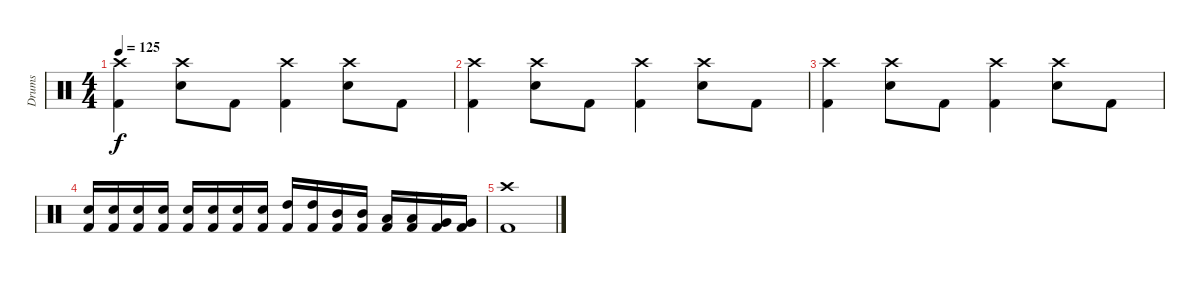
\track ("Drums" "Drums") {instrument percussion}
\staff {score}
\articulation defaults
\ts (4 4)
\tempo 125
\clef neutral
\ks c
("Crash high (hit)" "Kick (hit) 2").4{dy f} ("Crash high (hit)" "Snare (hit) 2").8 "Kick (hit) 2".8 ("Crash high (hit)" "Kick (hit) 2").4 ("Crash high (hit)" "Snare (hit) 2").8 "Kick (hit) 2".8 |
("Crash high (hit)" "Kick (hit) 2").4 ("Crash high (hit)" "Snare (hit) 2").8 "Kick (hit) 2".8 ("Crash high (hit)" "Kick (hit) 2").4 ("Crash high (hit)" "Snare (hit) 2").8 "Kick (hit) 2".8 |
("Crash high (hit)" "Kick (hit) 2").4 ("Crash high (hit)" "Snare (hit) 2").8 "Kick (hit) 2".8 ("Crash high (hit)" "Kick (hit) 2").4 ("Crash high (hit)" "Snare (hit) 2").8 "Kick (hit) 2".8 |
("Snare (hit) 2" "Kick (hit) 2").16 ("Snare (hit) 2" "Kick (hit) 2").16 ("Snare (hit) 2" "Kick (hit) 2").16 ("Snare (hit) 2" "Kick (hit) 2").16 ("Snare (hit) 2" "Kick (hit) 2").16 ("Snare (hit) 2" "Kick (hit) 2").16 ("Snare (hit) 2" "Kick (hit) 2").16 ("Snare (hit) 2" "Kick (hit) 2").16 ("High Tom (hit)" "Kick (hit) 2").16 ("High Tom (hit)" "Kick (hit) 2").16 ("Mid Tom (hit)" "Kick (hit) 2").16 ("Mid Tom (hit)" "Kick (hit) 2").16 ("Low Tom (hit)" "Kick (hit) 2").16 ("Low Tom (hit)" "Kick (hit) 2").16 ("Very Low Tom (hit)" "Kick (hit) 2").16 ("Very Low Tom (hit)" "Kick (hit) 2").16 |
("Crash high (hit)" "Kick (hit) 2").1
